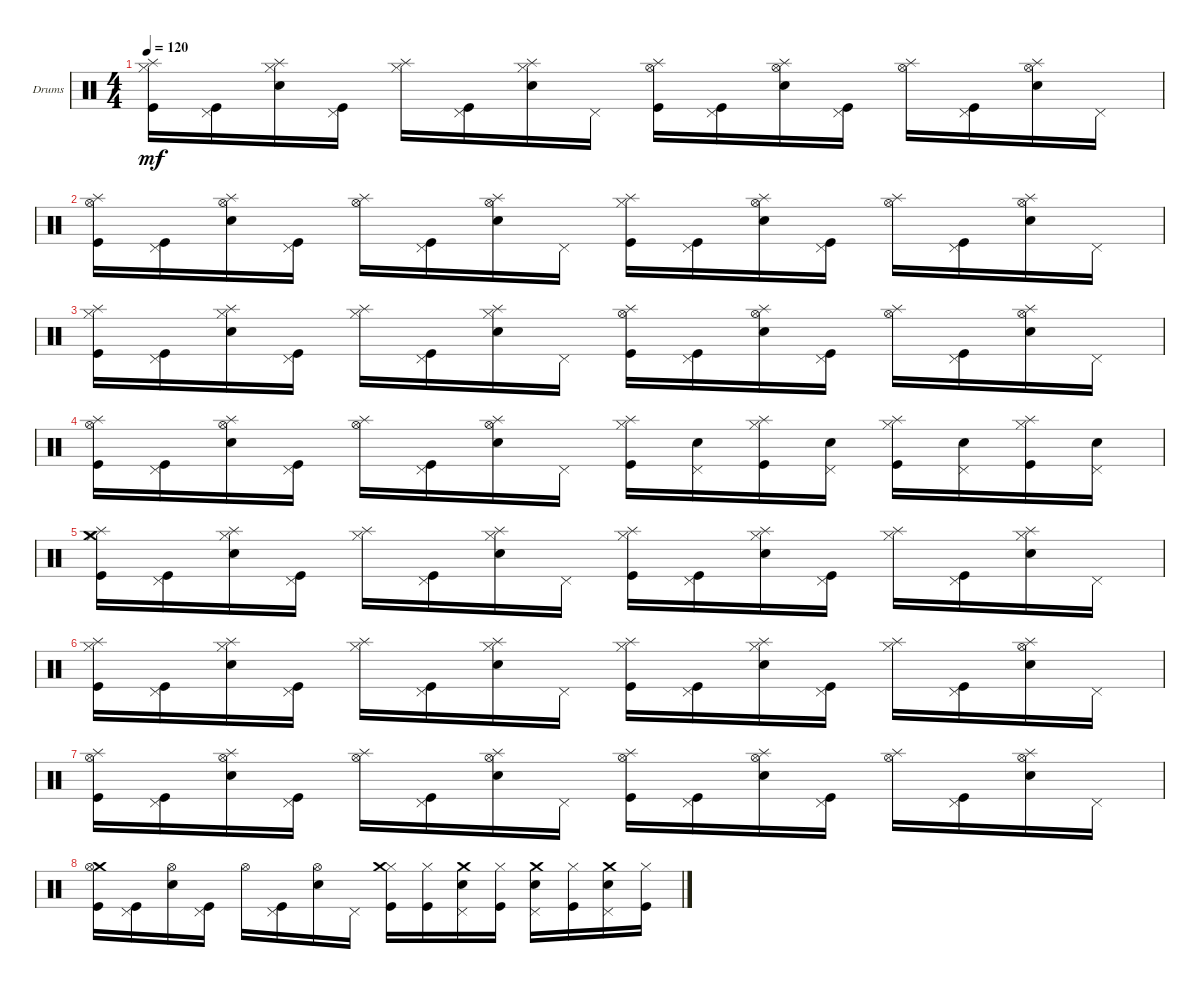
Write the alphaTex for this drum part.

\defaultSystemsLayout 4
\bracketExtendMode groupsimilarinstruments
\firstSystemTrackNameOrientation horizontal
\otherSystemsTrackNameOrientation horizontal
\track ("Drumkit" "Drums") {instrument percussion}
\staff {score}
\articulation defaults
\ts (4 4)
\tempo 120
\clef neutral
\scale
0.333333
\ks c
("Hi-Hat (closed)" "Kick (hit)" "Splash (hit)").16{dy mf} ("Pedal Hi-Hat (hit)" "Kick (hit)").16 ("Snare (hit) 2" "Hi-Hat (closed)" "Splash (hit)").16 ("Pedal Hi-Hat (hit)" "Kick (hit)").16 ("Hi-Hat (closed)" "Splash (hit)").16 ("Pedal Hi-Hat (hit)" "Kick (hit)").16 ("Hi-Hat (closed)" "Snare (hit) 2" "Splash (hit)").16 "Pedal Hi-Hat (hit)".16 ("Hi-Hat (open)" "Splash (hit)" "Kick (hit)").16 ("Pedal Hi-Hat (hit)" "Kick (hit)").16 ("Hi-Hat (open)" "Splash (hit)" "Snare (hit) 2").16 ("Pedal Hi-Hat (hit)" "Kick (hit)").16 ("Hi-Hat (open)" "Splash (hit)").16 ("Pedal Hi-Hat (hit)" "Kick (hit)").16 ("Hi-Hat (open)" "Splash (hit)" "Snare (hit) 2").16 "Pedal Hi-Hat (hit)".16 |
\scale
0.333333 ("Hi-Hat (open)" "Splash (hit)" "Kick (hit)").16 ("Pedal Hi-Hat (hit)" "Kick (hit)").16 ("Hi-Hat (open)" "Splash (hit)" "Snare (hit) 2").16 ("Pedal Hi-Hat (hit)" "Kick (hit)").16 ("Hi-Hat (open)" "Splash (hit)").16 ("Pedal Hi-Hat (hit)" "Kick (hit)").16 ("Hi-Hat (open)" "Splash (hit)" "Snare (hit) 2").16 "Pedal Hi-Hat (hit)".16 ("Splash (hit)" "Hi-Hat (closed)" "Kick (hit)").16 ("Pedal Hi-Hat (hit)" "Kick (hit)").16 ("Hi-Hat (open)" "Splash (hit)" "Snare (hit) 2").16 ("Pedal Hi-Hat (hit)" "Kick (hit)").16 ("Hi-Hat (open)" "Splash (hit)").16 ("Pedal Hi-Hat (hit)" "Kick (hit)").16 ("Hi-Hat (open)" "Splash (hit)" "Snare (hit) 2").16 "Pedal Hi-Hat (hit)".16 |
\scale
0.333333 ("Hi-Hat (closed)" "Kick (hit)" "Splash (hit)").16 ("Pedal Hi-Hat (hit)" "Kick (hit)").16 ("Snare (hit) 2" "Hi-Hat (closed)" "Splash (hit)").16 ("Pedal Hi-Hat (hit)" "Kick (hit)").16 ("Hi-Hat (closed)" "Splash (hit)").16 ("Pedal Hi-Hat (hit)" "Kick (hit)").16 ("Hi-Hat (closed)" "Snare (hit) 2" "Splash (hit)").16 "Pedal Hi-Hat (hit)".16 ("Hi-Hat (open)" "Splash (hit)" "Kick (hit)").16 ("Pedal Hi-Hat (hit)" "Kick (hit)").16 ("Hi-Hat (open)" "Splash (hit)" "Snare (hit) 2").16 ("Pedal Hi-Hat (hit)" "Kick (hit)").16 ("Hi-Hat (open)" "Splash (hit)").16 ("Pedal Hi-Hat (hit)" "Kick (hit)").16 ("Hi-Hat (open)" "Splash (hit)" "Snare (hit) 2").16 "Pedal Hi-Hat (hit)".16 |
\scale
0.333333 ("Hi-Hat (open)" "Splash (hit)" "Kick (hit)").16 ("Pedal Hi-Hat (hit)" "Kick (hit)").16 ("Hi-Hat (open)" "Splash (hit)" "Snare (hit) 2").16 ("Pedal Hi-Hat (hit)" "Kick (hit)").16 ("Hi-Hat (open)" "Splash (hit)").16 ("Pedal Hi-Hat (hit)" "Kick (hit)").16 ("Hi-Hat (open)" "Splash (hit)" "Snare (hit) 2").16 "Pedal Hi-Hat (hit)".16 ("Hi-Hat (closed)" "Kick (hit)" "Splash (hit)").16 ("Pedal Hi-Hat (hit)" "Snare (hit) 2").16 ("Hi-Hat (closed)" "Kick (hit)" "Splash (hit)").16 ("Snare (hit) 2" "Pedal Hi-Hat (hit)").16 ("Hi-Hat (closed)" "Kick (hit)" "Splash (hit)").16 ("Snare (hit) 2" "Pedal Hi-Hat (hit)").16 ("Hi-Hat (closed)" "Kick (hit)" "Splash (hit)").16 ("Pedal Hi-Hat (hit)" "Snare (hit) 2").16 |
\scale
0.333333 ("Hi-Hat (closed)" "Kick (hit)" "Crash medium (hit)" "Splash (hit)").16 ("Pedal Hi-Hat (hit)" "Kick (hit)").16 ("Snare (hit) 2" "Hi-Hat (closed)" "Splash (hit)").16 ("Pedal Hi-Hat (hit)" "Kick (hit)").16 ("Hi-Hat (closed)" "Splash (hit)").16 ("Pedal Hi-Hat (hit)" "Kick (hit)").16 ("Hi-Hat (closed)" "Snare (hit) 2" "Splash (hit)").16 "Pedal Hi-Hat (hit)".16 ("Hi-Hat (closed)" "Kick (hit)" "Splash (hit)").16 ("Pedal Hi-Hat (hit)" "Kick (hit)").16 ("Snare (hit) 2" "Hi-Hat (closed)" "Splash (hit)").16 ("Pedal Hi-Hat (hit)" "Kick (hit)").16 ("Hi-Hat (closed)" "Splash (hit)").16 ("Pedal Hi-Hat (hit)" "Kick (hit)").16 ("Hi-Hat (closed)" "Snare (hit) 2" "Splash (hit)").16 "Pedal Hi-Hat (hit)".16 |
("Hi-Hat (closed)" "Kick (hit)" "Splash (hit)").16 ("Pedal Hi-Hat (hit)" "Kick (hit)").16 ("Snare (hit) 2" "Hi-Hat (closed)" "Splash (hit)").16 ("Pedal Hi-Hat (hit)" "Kick (hit)").16 ("Hi-Hat (closed)" "Splash (hit)").16 ("Pedal Hi-Hat (hit)" "Kick (hit)").16 ("Hi-Hat (closed)" "Snare (hit) 2" "Splash (hit)").16 "Pedal Hi-Hat (hit)".16 ("Hi-Hat (closed)" "Kick (hit)" "Splash (hit)").16 ("Pedal Hi-Hat (hit)" "Kick (hit)").16 ("Snare (hit) 2" "Hi-Hat (closed)" "Splash (hit)").16 ("Pedal Hi-Hat (hit)" "Kick (hit)").16 ("Hi-Hat (closed)" "Splash (hit)").16 ("Pedal Hi-Hat (hit)" "Kick (hit)").16 ("Hi-Hat (open)" "Splash (hit)" "Snare (hit) 2").16 "Pedal Hi-Hat (hit)".16 |
("Splash (hit)" "Hi-Hat (open)" "Kick (hit)").16 ("Pedal Hi-Hat (hit)" "Kick (hit)").16 ("Splash (hit)" "Hi-Hat (open)" "Snare (hit) 2").16 ("Pedal Hi-Hat (hit)" "Kick (hit)").16 ("Splash (hit)" "Hi-Hat (open)").16 ("Pedal Hi-Hat (hit)" "Kick (hit)").16 ("Splash (hit)" "Hi-Hat (open)" "Snare (hit) 2").16 "Pedal Hi-Hat (hit)".16 ("Splash (hit)" "Hi-Hat (open)" "Kick (hit)").16 ("Pedal Hi-Hat (hit)" "Kick (hit)").16 ("Splash (hit)" "Hi-Hat (open)" "Snare (hit) 2").16 ("Pedal Hi-Hat (hit)" "Kick (hit)").16 ("Splash (hit)" "Hi-Hat (open)").16 ("Pedal Hi-Hat (hit)" "Kick (hit)").16 ("Splash (hit)" "Hi-Hat (open)" "Snare (hit) 2").16 "Pedal Hi-Hat (hit)".16 |
("Crash medium (hit)" "Hi-Hat (open)" "Kick (hit)").16 ("Pedal Hi-Hat (hit)" "Kick (hit)").16 ("Hi-Hat (open)" "Snare (hit) 2").16 ("Pedal Hi-Hat (hit)" "Kick (hit)").16 "Hi-Hat (open)".16 ("Pedal Hi-Hat (hit)" "Kick (hit)").16 ("Hi-Hat (open)" "Snare (hit) 2").16 "Pedal Hi-Hat (hit)".16 ("Hi-Hat (closed)" "Kick (hit)" "Crash medium (hit)").16 ("Hi-Hat (closed)" "Kick (hit)").16 ("Pedal Hi-Hat (hit)" "Snare (hit) 2" "Crash medium (hit)").16 ("Hi-Hat (closed)" "Kick (hit)").16 ("Pedal Hi-Hat (hit)" "Snare (hit) 2" "Crash medium (hit)").16 ("Hi-Hat (closed)" "Kick (hit)").16 ("Pedal Hi-Hat (hit)" "Snare (hit) 2" "Crash medium (hit)").16 ("Hi-Hat (closed)" "Kick (hit)").16
